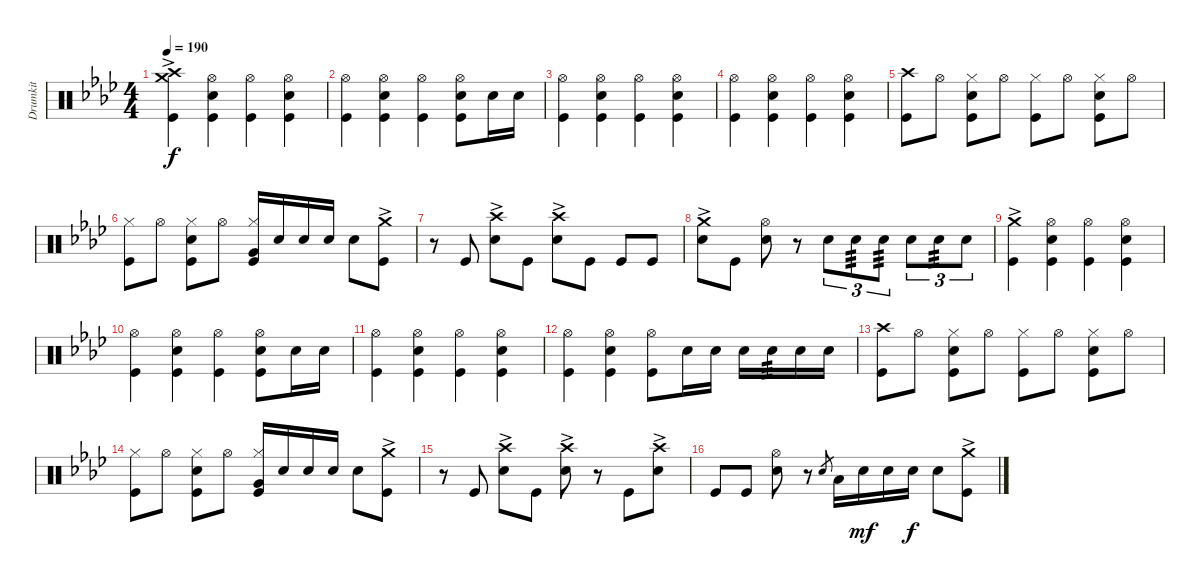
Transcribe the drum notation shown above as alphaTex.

\track ("Drumkit" "Drumkit") {instrument percussion}
\staff {score}
\articulation defaults
\ts (4 4)
\tempo 190
\clef neutral
\ks ab
("Kick (hit)" "Crash high (hit)"{ac} "Crash medium (hit)"{ac}).4{dy f} ("Snare (hit) 2" "Hi-Hat (open)" "Kick (hit)").4 ("Kick (hit)" "Hi-Hat (open)").4 ("Snare (hit) 2" "Hi-Hat (open)" "Kick (hit)").4 |
("Kick (hit)" "Hi-Hat (open)").4 ("Snare (hit) 2" "Hi-Hat (open)" "Kick (hit)").4 ("Kick (hit)" "Hi-Hat (open)").4 ("Snare (hit) 2" "Hi-Hat (open)" "Kick (hit)").8 "Snare (hit) 2".16 "Snare (hit) 2".16 |
("Kick (hit)" "Hi-Hat (open)").4 ("Snare (hit) 2" "Hi-Hat (open)" "Kick (hit)").4 ("Kick (hit)" "Hi-Hat (open)").4 ("Snare (hit) 2" "Hi-Hat (open)" "Kick (hit)").4 |
("Kick (hit)" "Hi-Hat (open)").4 ("Snare (hit) 2" "Hi-Hat (open)" "Kick (hit)").4 ("Kick (hit)" "Hi-Hat (open)").4 ("Snare (hit) 2" "Hi-Hat (open)" "Kick (hit)").4 |
("Kick (hit)" "Crash high (hit)").8 "Hi-Hat (open)".8 ("Kick (hit)" "Snare (hit) 2" "Hi-Hat (closed)").8 "Hi-Hat (open)".8 ("Kick (hit)" "Hi-Hat (closed)").8 "Hi-Hat (open)".8 ("Kick (hit)" "Hi-Hat (closed)" "Snare (hit) 2").8 "Hi-Hat (open)".8 |
("Kick (hit)" "Hi-Hat (closed)").8 "Hi-Hat (open)".8 ("Kick (hit)" "Snare (hit) 2" "Hi-Hat (closed)").8 "Hi-Hat (open)".8 ("Hi-Hat (closed)" "Very Low Tom (hit)" "Kick (hit)").16 "Snare (hit) 2".16 "Snare (hit) 2".16 "Snare (hit) 2".16 "Snare (hit) 2".8 ("Kick (hit)" "Crash medium (hit)"{ac}).8 |
r.8 "Kick (hit)".8 ("Snare (hit) 2" "Crash high (hit)"{ac}).8 "Kick (hit)".8 ("Snare (hit) 2" "Crash high (hit)"{ac}).8 "Kick (hit)".8 "Kick (hit)".8 "Kick (hit)".8 |
("Snare (hit) 2" "Crash medium (hit)"{ac}).8 "Kick (hit)".8 ("Snare (hit) 2" "Hi-Hat (open)").8 r.8 "Snare (hit) 2".8{tu (3 2)} "Snare (hit) 2".8{tu (3 2) tp 3} "Snare (hit) 2".8{tu (3 2) tp 3} "Snare (hit) 2".8{tu (3 2)} "Snare (hit) 2".8{tu (3 2) tp 3} "Snare (hit) 2".8{tu (3 2)} |
("Kick (hit)" "Crash medium (hit)"{ac}).4 ("Snare (hit) 2" "Hi-Hat (open)" "Kick (hit)").4 ("Kick (hit)" "Hi-Hat (open)").4 ("Snare (hit) 2" "Hi-Hat (open)" "Kick (hit)").4 |
("Kick (hit)" "Hi-Hat (open)").4 ("Snare (hit) 2" "Hi-Hat (open)" "Kick (hit)").4 ("Kick (hit)" "Hi-Hat (open)").4 ("Snare (hit) 2" "Hi-Hat (open)" "Kick (hit)").8 "Snare (hit) 2".16 "Snare (hit) 2".16 |
("Kick (hit)" "Hi-Hat (open)").4 ("Snare (hit) 2" "Hi-Hat (open)" "Kick (hit)").4 ("Kick (hit)" "Hi-Hat (open)").4 ("Snare (hit) 2" "Hi-Hat (open)" "Kick (hit)").4 |
("Kick (hit)" "Hi-Hat (open)").4 ("Snare (hit) 2" "Hi-Hat (open)" "Kick (hit)").4 ("Kick (hit)" "Hi-Hat (open)").8 "Snare (hit) 2".16 "Snare (hit) 2".16 "Snare (hit) 2".16 "Snare (hit) 2".16{tp 3} "Snare (hit) 2".16 "Snare (hit) 2".16 |
("Kick (hit)" "Crash high (hit)").8 "Hi-Hat (open)".8 ("Kick (hit)" "Snare (hit) 2" "Hi-Hat (closed)").8 "Hi-Hat (open)".8 ("Kick (hit)" "Hi-Hat (closed)").8 "Hi-Hat (open)".8 ("Kick (hit)" "Hi-Hat (closed)" "Snare (hit) 2").8 "Hi-Hat (open)".8 |
("Kick (hit)" "Hi-Hat (closed)").8 "Hi-Hat (open)".8 ("Kick (hit)" "Snare (hit) 2" "Hi-Hat (closed)").8 "Hi-Hat (open)".8 ("Hi-Hat (closed)" "Very Low Tom (hit)" "Kick (hit)").16 "Snare (hit) 2".16 "Snare (hit) 2".16 "Snare (hit) 2".16 "Snare (hit) 2".8 ("Kick (hit)" "Crash medium (hit)"{ac}).8 |
r.8 "Kick (hit)".8 ("Snare (hit) 2" "Crash high (hit)"{ac}).8 "Kick (hit)".8 ("Snare (hit) 2" "Crash high (hit)"{ac}).8 r.8 "Kick (hit)".8 ("Snare (hit) 2" "Crash high (hit)"{ac}).8 |
"Kick (hit)".8 "Kick (hit)".8 ("Snare (hit) 2" "Hi-Hat (open)").8 r.8 "Snare (hit)".8{gr} "Low Tom (hit)".16 "Snare (hit) 2".16{dy mf} "Snare (hit) 2".16 "Snare (hit) 2".16{dy f} "Snare (hit) 2".8 ("Kick (hit)" "Crash medium (hit)"{ac}).8
